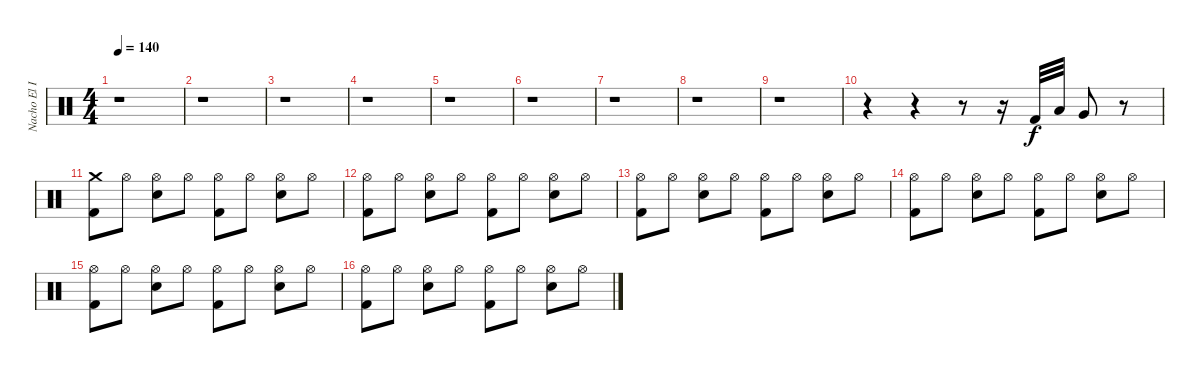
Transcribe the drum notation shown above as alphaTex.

\track ("Nacho El Implacable Gonzalez" "Nacho El I") {instrument percussion}
\staff {score}
\articulation defaults
\ts (4 4)
\tempo 140
\clef neutral
\ks c
r.1{dy f} |
r.1 |
r.1 |
r.1 |
r.1 |
r.1 |
r.1 |
r.1 |
r.1 |
r.4 r.4 r.8 r.16 "Kick (hit) 2".32 "Low Tom (hit)".32 "Very Low Tom (hit)".8 r.8 |
("Crash medium (hit)" "Kick (hit) 2").8 "Hi-Hat (open)".8 ("Hi-Hat (open)" "Electric Snare (hit)").8 "Hi-Hat (open)".8 ("Hi-Hat (open)" "Kick (hit) 2").8 "Hi-Hat (open)".8 ("Hi-Hat (open)" "Electric Snare (hit)").8 "Hi-Hat (open)".8 |
("Hi-Hat (open)" "Kick (hit) 2").8 "Hi-Hat (open)".8 ("Hi-Hat (open)" "Electric Snare (hit)").8 "Hi-Hat (open)".8 ("Hi-Hat (open)" "Kick (hit) 2").8 "Hi-Hat (open)".8 ("Hi-Hat (open)" "Electric Snare (hit)").8 "Hi-Hat (open)".8 |
("Hi-Hat (open)" "Kick (hit) 2").8 "Hi-Hat (open)".8 ("Hi-Hat (open)" "Electric Snare (hit)").8 "Hi-Hat (open)".8 ("Hi-Hat (open)" "Kick (hit) 2").8 "Hi-Hat (open)".8 ("Hi-Hat (open)" "Electric Snare (hit)").8 "Hi-Hat (open)".8 |
("Hi-Hat (open)" "Kick (hit) 2").8 "Hi-Hat (open)".8 ("Hi-Hat (open)" "Electric Snare (hit)").8 "Hi-Hat (open)".8 ("Hi-Hat (open)" "Kick (hit) 2").8 "Hi-Hat (open)".8 ("Hi-Hat (open)" "Electric Snare (hit)").8 "Hi-Hat (open)".8 |
("Hi-Hat (open)" "Kick (hit) 2").8 "Hi-Hat (open)".8 ("Hi-Hat (open)" "Electric Snare (hit)").8 "Hi-Hat (open)".8 ("Hi-Hat (open)" "Kick (hit) 2").8 "Hi-Hat (open)".8 ("Hi-Hat (open)" "Electric Snare (hit)").8 "Hi-Hat (open)".8 |
("Hi-Hat (open)" "Kick (hit) 2").8 "Hi-Hat (open)".8 ("Hi-Hat (open)" "Electric Snare (hit)").8 "Hi-Hat (open)".8 ("Hi-Hat (open)" "Kick (hit) 2").8 "Hi-Hat (open)".8 ("Hi-Hat (open)" "Electric Snare (hit)").8 "Hi-Hat (open)".8
